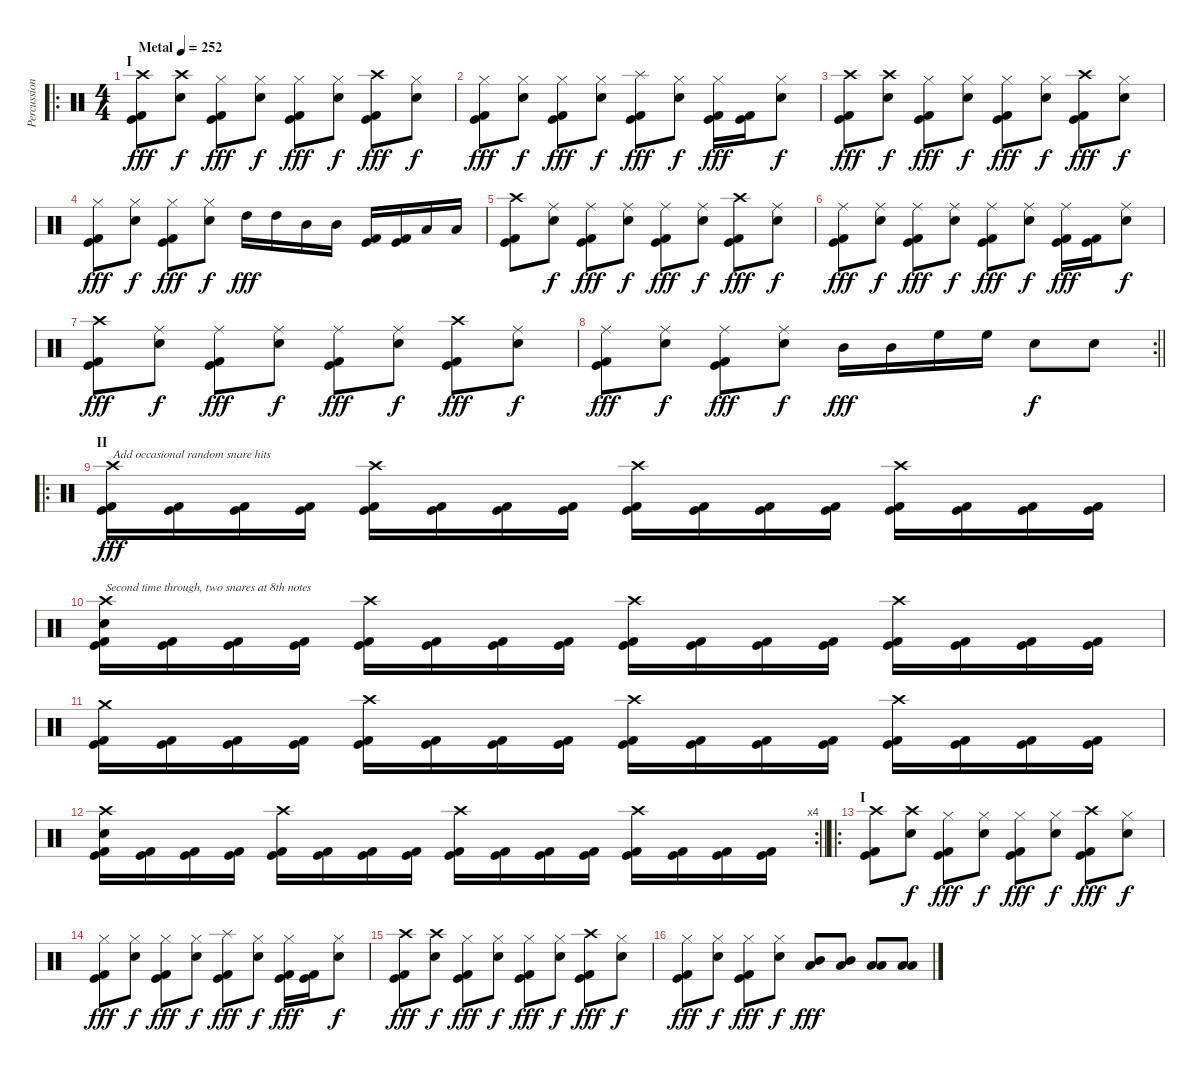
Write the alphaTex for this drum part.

\track ("Percussion" "Percussion") {mute instrument percussion}
\staff {score}
\articulation defaults
\ro
\ts (4 4)
\section ("" "I")
\tempo (252 "Metal")
\clef neutral
\ks c
("Crash high (hit)" "Kick (hit)" "Kick (hit) 2").8{dy fff} ("Crash high (hit)" "Electric Snare (hit)").8{dy f} ("Hi-Hat (closed)" "Kick (hit)" "Kick (hit) 2").8{dy fff} ("Hi-Hat (closed)" "Electric Snare (hit)").8{dy f} ("Hi-Hat (closed)" "Kick (hit)" "Kick (hit) 2").8{dy fff} ("Hi-Hat (closed)" "Electric Snare (hit)").8{dy f} ("Crash high (hit)" "Kick (hit)" "Kick (hit) 2").8{dy fff} ("Hi-Hat (closed)" "Electric Snare (hit)").8{dy f} |
("Hi-Hat (closed)" "Kick (hit)" "Kick (hit) 2").8{dy fff} ("Hi-Hat (closed)" "Electric Snare (hit)").8{dy f} ("Hi-Hat (closed)" "Kick (hit)" "Kick (hit) 2").8{dy fff} ("Hi-Hat (closed)" "Electric Snare (hit)").8{dy f} ("Splash (hit)" "Kick (hit)" "Kick (hit) 2").8{dy fff} ("Hi-Hat (closed)" "Electric Snare (hit)").8{dy f} ("Hi-Hat (closed)" "Kick (hit)" "Kick (hit) 2").16{dy fff} ("Kick (hit)" "Kick (hit) 2").16 ("Hi-Hat (closed)" "Electric Snare (hit)").8{dy f} |
("Crash high (hit)" "Kick (hit)" "Kick (hit) 2").8{dy fff} ("Crash high (hit)" "Electric Snare (hit)").8{dy f} ("Hi-Hat (closed)" "Kick (hit)" "Kick (hit) 2").8{dy fff} ("Hi-Hat (closed)" "Electric Snare (hit)").8{dy f} ("Hi-Hat (closed)" "Kick (hit)" "Kick (hit) 2").8{dy fff} ("Hi-Hat (closed)" "Electric Snare (hit)").8{dy f} ("Crash high (hit)" "Kick (hit)" "Kick (hit) 2").8{dy fff} ("Hi-Hat (closed)" "Electric Snare (hit)").8{dy f} |
("Hi-Hat (closed)" "Kick (hit)" "Kick (hit) 2").8{dy fff} ("Hi-Hat (closed)" "Electric Snare (hit)").8{dy f} ("Hi-Hat (closed)" "Kick (hit)" "Kick (hit) 2").8{dy fff} ("Hi-Hat (closed)" "Electric Snare (hit)").8{dy f} "High Tom (hit)".16{dy fff} "High Tom (hit)".16 "Mid Tom (hit)".16 "Mid Tom (hit)".16 ("Kick (hit)" "Kick (hit) 2").16 ("Kick (hit)" "Kick (hit) 2").16 "Low Floor Tom (hit)".16 "Low Floor Tom (hit)".16 |
("Crash high (hit)" "Kick (hit)" "Kick (hit) 2").8 ("Ride (middle)" "Electric Snare (hit)").8{dy f} ("Ride (middle)" "Kick (hit)" "Kick (hit) 2").8{dy fff} ("Ride (middle)" "Electric Snare (hit)").8{dy f} ("Ride (middle)" "Kick (hit)" "Kick (hit) 2").8{dy fff} ("Ride (middle)" "Electric Snare (hit)").8{dy f} ("Crash high (hit)" "Kick (hit)" "Kick (hit) 2").8{dy fff} ("Ride (middle)" "Electric Snare (hit)").8{dy f} |
("Ride (middle)" "Kick (hit)" "Kick (hit) 2").8{dy fff} ("Ride (middle)" "Electric Snare (hit)").8{dy f} ("Ride (middle)" "Kick (hit)" "Kick (hit) 2").8{dy fff} ("Ride (middle)" "Electric Snare (hit)").8{dy f} ("Ride (middle)" "Kick (hit)" "Kick (hit) 2").8{dy fff} ("Ride (middle)" "Electric Snare (hit)").8{dy f} ("Ride (middle)" "Kick (hit)" "Kick (hit) 2").16{dy fff} ("Kick (hit)" "Kick (hit) 2").16 ("Ride (middle)" "Electric Snare (hit)").8{dy f} |
("Crash high (hit)" "Kick (hit)" "Kick (hit) 2").8{dy fff} ("Ride (middle)" "Electric Snare (hit)").8{dy f} ("Ride (middle)" "Kick (hit)" "Kick (hit) 2").8{dy fff} ("Ride (middle)" "Electric Snare (hit)").8{dy f} ("Ride (middle)" "Kick (hit)" "Kick (hit) 2").8{dy fff} ("Ride (middle)" "Electric Snare (hit)").8{dy f} ("Crash high (hit)" "Kick (hit)" "Kick (hit) 2").8{dy fff} ("Ride (middle)" "Electric Snare (hit)").8{dy f} |
\rc 2
\barLineRight lightlight
("Ride (middle)" "Kick (hit)" "Kick (hit) 2").8{dy fff} ("Ride (middle)" "Electric Snare (hit)").8{dy f} ("Ride (middle)" "Kick (hit)" "Kick (hit) 2").8{dy fff} ("Ride (middle)" "Electric Snare (hit)").8{dy f} "Mid Tom (hit)".16{dy fff} "Mid Tom (hit)".16 "High Floor Tom (hit)".16 "High Floor Tom (hit)".16 "Electric Snare (hit)".8{dy f} "Electric Snare (hit)".8 |
\ro
\section ("" "II")
("Crash high (hit)" "Kick (hit)" "Kick (hit) 2").16{txt "Add occasional random snare hits" dy fff} ("Kick (hit)" "Kick (hit) 2").16 ("Kick (hit)" "Kick (hit) 2").16 ("Kick (hit)" "Kick (hit) 2").16 ("Crash high (hit)" "Kick (hit)" "Kick (hit) 2").16 ("Kick (hit)" "Kick (hit) 2").16 ("Kick (hit)" "Kick (hit) 2").16 ("Kick (hit)" "Kick (hit) 2").16 ("Crash high (hit)" "Kick (hit)" "Kick (hit) 2").16 ("Kick (hit)" "Kick (hit) 2").16 ("Kick (hit)" "Kick (hit) 2").16 ("Kick (hit)" "Kick (hit) 2").16 ("Crash high (hit)" "Kick (hit)" "Kick (hit) 2").16 ("Kick (hit)" "Kick (hit) 2").16 ("Kick (hit)" "Kick (hit) 2").16 ("Kick (hit)" "Kick (hit) 2").16 |
("Crash high (hit)" "Electric Snare (hit)" "Kick (hit)" "Kick (hit) 2").16{txt "Second time through, two snares at 8th notes"} ("Kick (hit)" "Kick (hit) 2").16 ("Kick (hit)" "Kick (hit) 2").16 ("Kick (hit)" "Kick (hit) 2").16 ("Crash high (hit)" "Kick (hit)" "Kick (hit) 2").16 ("Kick (hit)" "Kick (hit) 2").16 ("Kick (hit)" "Kick (hit) 2").16 ("Kick (hit)" "Kick (hit) 2").16 ("Crash high (hit)" "Kick (hit)" "Kick (hit) 2").16 ("Kick (hit)" "Kick (hit) 2").16 ("Kick (hit)" "Kick (hit) 2").16 ("Kick (hit)" "Kick (hit) 2").16 ("Crash high (hit)" "Kick (hit)" "Kick (hit) 2").16 ("Kick (hit)" "Kick (hit) 2").16 ("Kick (hit)" "Kick (hit) 2").16 ("Kick (hit)" "Kick (hit) 2").16 |
("Crash medium (hit)" "Kick (hit)" "Kick (hit) 2").16 ("Kick (hit)" "Kick (hit) 2").16 ("Kick (hit)" "Kick (hit) 2").16 ("Kick (hit)" "Kick (hit) 2").16 ("Crash high (hit)" "Kick (hit)" "Kick (hit) 2").16 ("Kick (hit)" "Kick (hit) 2").16 ("Kick (hit)" "Kick (hit) 2").16 ("Kick (hit)" "Kick (hit) 2").16 ("Crash high (hit)" "Kick (hit)" "Kick (hit) 2").16 ("Kick (hit)" "Kick (hit) 2").16 ("Kick (hit)" "Kick (hit) 2").16 ("Kick (hit)" "Kick (hit) 2").16 ("Crash high (hit)" "Kick (hit)" "Kick (hit) 2").16 ("Kick (hit)" "Kick (hit) 2").16 ("Kick (hit)" "Kick (hit) 2").16 ("Kick (hit)" "Kick (hit) 2").16 |
\rc 4
\barLineRight lightlight
("Crash high (hit)" "Electric Snare (hit)" "Kick (hit)" "Kick (hit) 2").16 ("Kick (hit)" "Kick (hit) 2").16 ("Kick (hit)" "Kick (hit) 2").16 ("Kick (hit)" "Kick (hit) 2").16 ("Crash high (hit)" "Kick (hit)" "Kick (hit) 2").16 ("Kick (hit)" "Kick (hit) 2").16 ("Kick (hit)" "Kick (hit) 2").16 ("Kick (hit)" "Kick (hit) 2").16 ("Crash high (hit)" "Kick (hit)" "Kick (hit) 2").16 ("Kick (hit)" "Kick (hit) 2").16 ("Kick (hit)" "Kick (hit) 2").16 ("Kick (hit)" "Kick (hit) 2").16 ("Crash high (hit)" "Kick (hit)" "Kick (hit) 2").16 ("Kick (hit)" "Kick (hit) 2").16 ("Kick (hit)" "Kick (hit) 2").16 ("Kick (hit)" "Kick (hit) 2").16 |
\ro
\section ("" "I")
("Crash high (hit)" "Kick (hit)" "Kick (hit) 2").8 ("Crash high (hit)" "Electric Snare (hit)").8{dy f} ("Hi-Hat (closed)" "Kick (hit)" "Kick (hit) 2").8{dy fff} ("Hi-Hat (closed)" "Electric Snare (hit)").8{dy f} ("Hi-Hat (closed)" "Kick (hit)" "Kick (hit) 2").8{dy fff} ("Hi-Hat (closed)" "Electric Snare (hit)").8{dy f} ("Crash high (hit)" "Kick (hit)" "Kick (hit) 2").8{dy fff} ("Hi-Hat (closed)" "Electric Snare (hit)").8{dy f} |
("Hi-Hat (closed)" "Kick (hit)" "Kick (hit) 2").8{dy fff} ("Hi-Hat (closed)" "Electric Snare (hit)").8{dy f} ("Hi-Hat (closed)" "Kick (hit)" "Kick (hit) 2").8{dy fff} ("Hi-Hat (closed)" "Electric Snare (hit)").8{dy f} ("Splash (hit)" "Kick (hit)" "Kick (hit) 2").8{dy fff} ("Hi-Hat (closed)" "Electric Snare (hit)").8{dy f} ("Hi-Hat (closed)" "Kick (hit)" "Kick (hit) 2").16{dy fff} ("Kick (hit)" "Kick (hit) 2").16 ("Hi-Hat (closed)" "Electric Snare (hit)").8{dy f} |
("Crash high (hit)" "Kick (hit)" "Kick (hit) 2").8{dy fff} ("Crash high (hit)" "Electric Snare (hit)").8{dy f} ("Hi-Hat (closed)" "Kick (hit)" "Kick (hit) 2").8{dy fff} ("Hi-Hat (closed)" "Electric Snare (hit)").8{dy f} ("Hi-Hat (closed)" "Kick (hit)" "Kick (hit) 2").8{dy fff} ("Hi-Hat (closed)" "Electric Snare (hit)").8{dy f} ("Crash high (hit)" "Kick (hit)" "Kick (hit) 2").8{dy fff} ("Hi-Hat (closed)" "Electric Snare (hit)").8{dy f} |
("Hi-Hat (closed)" "Kick (hit)" "Kick (hit) 2").8{dy fff} ("Hi-Hat (closed)" "Electric Snare (hit)").8{dy f} ("Hi-Hat (closed)" "Kick (hit)" "Kick (hit) 2").8{dy fff} ("Hi-Hat (closed)" "Electric Snare (hit)").8{dy f} ("Mid Tom (hit)" "Low Tom (hit)").8{dy fff} ("Mid Tom (hit)" "Low Tom (hit)").8 ("Low Tom (hit)" "Low Floor Tom (hit)").8 ("Low Tom (hit)" "Low Floor Tom (hit)").8
